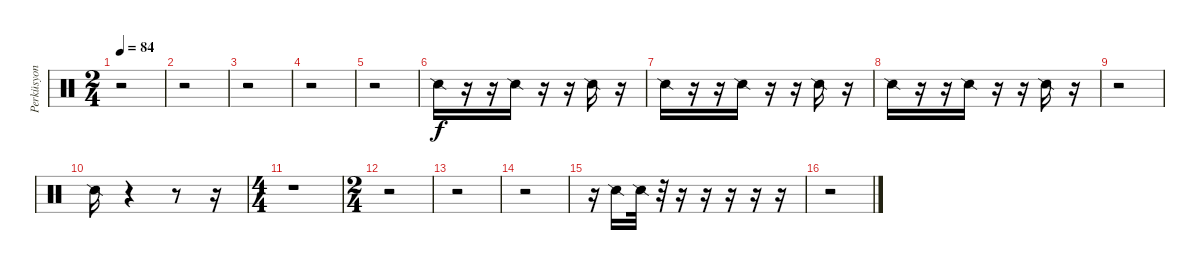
\track ("Perküsyon" "Perküsyon") {instrument percussion}
\staff {score}
\articulation defaults
\ts (2 4)
\tempo 84
\clef neutral
\ks c
r.2{dy f} |
r.2 |
r.2 |
r.2 |
r.2 |
"Snare (side stick) 2".16 r.16 r.16 "Snare (side stick) 2".16 r.16 r.16 "Snare (side stick) 2".16 r.16 |
"Snare (side stick) 2".16 r.16 r.16 "Snare (side stick) 2".16 r.16 r.16 "Snare (side stick) 2".16 r.16 |
"Snare (side stick) 2".16 r.16 r.16 "Snare (side stick) 2".16 r.16 r.16 "Snare (side stick) 2".16 r.16 |
r.2 |
"Snare (side stick) 2".16 r.4 r.8 r.16 |
\ts (4 4)
r.1 |
\ts (2 4)
r.2 |
r.2 |
r.2 |
r.16 "Snare (side stick) 2".16 "Snare (side stick) 2".32 r.32 r.16 r.16 r.16 r.16 r.16 |
r.2
